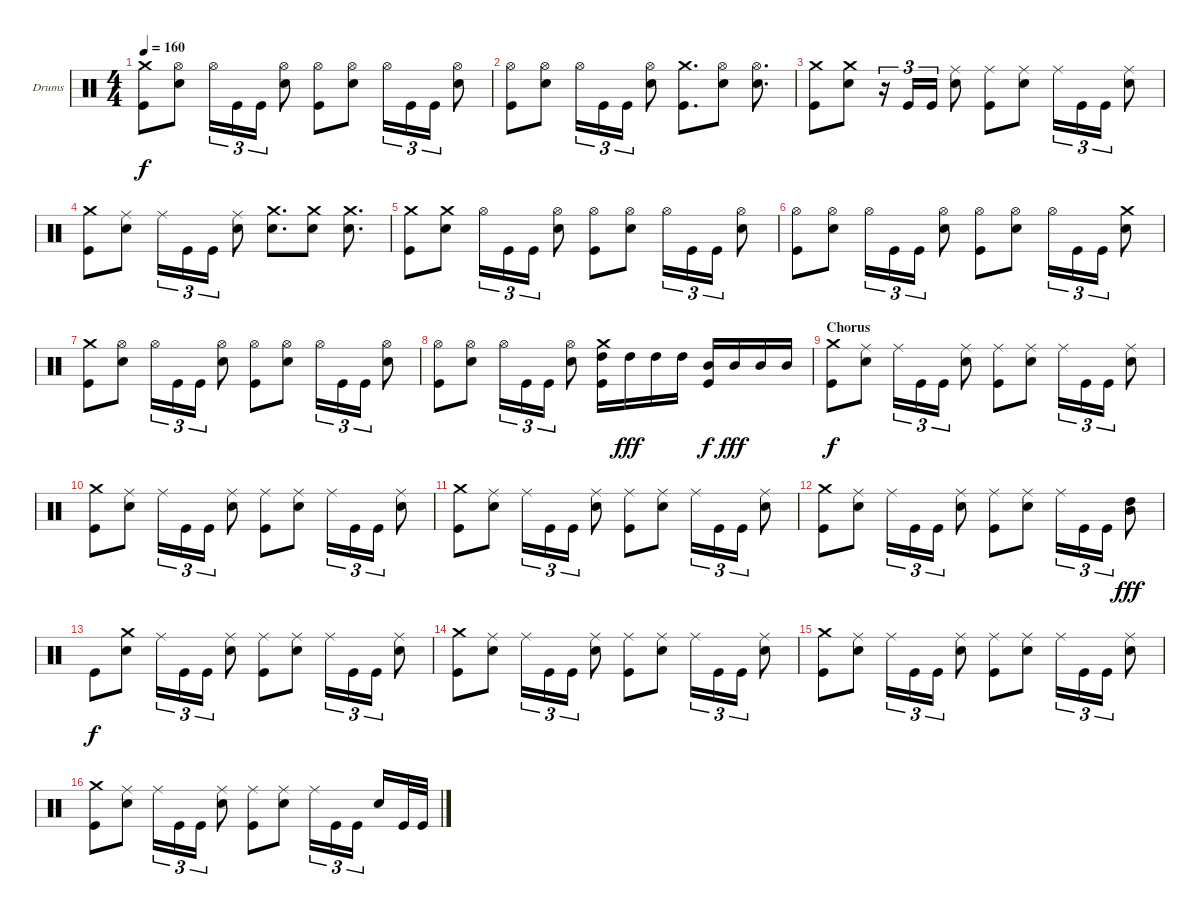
\bracketExtendMode groupsimilarinstruments
\firstSystemTrackNameOrientation horizontal
\otherSystemsTrackNameOrientation horizontal
\track ("Drums" "Drums") {instrument percussion}
\staff {score}
\articulation defaults
\ts (4 4)
\tempo 160
\clef neutral
\ks c
("Crash medium (hit)" "Kick (hit)").8{dy f} ("Hi-Hat (open)" "Snare (hit) 2").8 "Hi-Hat (open)".16{tu (3 2)} "Kick (hit)".16{tu (3 2)} "Kick (hit)".16{tu (3 2)} ("Hi-Hat (open)" "Snare (hit) 2").8 ("Hi-Hat (open)" "Kick (hit)").8 ("Hi-Hat (open)" "Snare (hit) 2").8 "Hi-Hat (open)".16{tu (3 2)} "Kick (hit)".16{tu (3 2)} "Kick (hit)".16{tu (3 2)} ("Hi-Hat (open)" "Snare (hit) 2").8 |
("Hi-Hat (open)" "Kick (hit)").8 ("Hi-Hat (open)" "Snare (hit) 2").8 "Hi-Hat (open)".16{tu (3 2)} "Kick (hit)".16{tu (3 2)} "Kick (hit)".16{tu (3 2)} ("Hi-Hat (open)" "Snare (hit) 2").8 ("Crash medium (hit)" "Kick (hit)").8{d} ("Hi-Hat (open)" "Snare (hit) 2").8 ("Hi-Hat (open)" "Snare (hit) 2").8{d} |
("Crash medium (hit)" "Kick (hit)").8 ("Crash medium (hit)" "Snare (hit) 2").8 r.16{tu (3 2)} "Kick (hit)".16{tu (3 2)} "Kick (hit)".16{tu (3 2)} ("Ride (middle)" "Snare (hit) 2").8 ("Ride (middle)" "Kick (hit)").8 ("Ride (middle)" "Snare (hit) 2").8 "Ride (middle)".16{tu (3 2)} "Kick (hit)".16{tu (3 2)} "Kick (hit)".16{tu (3 2)} ("Ride (middle)" "Snare (hit) 2").8 |
("Crash medium (hit)" "Kick (hit)").8 ("Ride (middle)" "Snare (hit) 2").8 "Ride (middle)".16{tu (3 2)} "Kick (hit)".16{tu (3 2)} "Kick (hit)".16{tu (3 2)} ("Ride (middle)" "Snare (hit) 2").8 ("Crash medium (hit)" "Snare (hit) 2").8{d} ("Crash medium (hit)" "Snare (hit) 2").8 ("Crash medium (hit)" "Snare (hit) 2").8{d} |
("Crash medium (hit)" "Kick (hit)").8 ("Crash medium (hit)" "Snare (hit) 2").8 "Hi-Hat (open)".16{tu (3 2)} "Kick (hit)".16{tu (3 2)} "Kick (hit)".16{tu (3 2)} ("Hi-Hat (open)" "Snare (hit) 2").8 ("Hi-Hat (open)" "Kick (hit)").8 ("Hi-Hat (open)" "Snare (hit) 2").8 "Hi-Hat (open)".16{tu (3 2)} "Kick (hit)".16{tu (3 2)} "Kick (hit)".16{tu (3 2)} ("Hi-Hat (open)" "Snare (hit) 2").8 |
("Hi-Hat (open)" "Kick (hit)").8 ("Hi-Hat (open)" "Snare (hit) 2").8 "Hi-Hat (open)".16{tu (3 2)} "Kick (hit)".16{tu (3 2)} "Kick (hit)".16{tu (3 2)} ("Hi-Hat (open)" "Snare (hit) 2").8 ("Hi-Hat (open)" "Kick (hit)").8 ("Hi-Hat (open)" "Snare (hit) 2").8 "Hi-Hat (open)".16{tu (3 2)} "Kick (hit)".16{tu (3 2)} "Kick (hit)".16{tu (3 2)} ("Crash medium (hit)" "Snare (hit) 2").8 |
("Crash medium (hit)" "Kick (hit)").8 ("Hi-Hat (open)" "Snare (hit) 2").8 "Hi-Hat (open)".16{tu (3 2)} "Kick (hit)".16{tu (3 2)} "Kick (hit)".16{tu (3 2)} ("Hi-Hat (open)" "Snare (hit) 2").8 ("Hi-Hat (open)" "Kick (hit)").8 ("Hi-Hat (open)" "Snare (hit) 2").8 "Hi-Hat (open)".16{tu (3 2)} "Kick (hit)".16{tu (3 2)} "Kick (hit)".16{tu (3 2)} ("Hi-Hat (open)" "Snare (hit) 2").8 |
("Hi-Hat (open)" "Kick (hit)").8 ("Hi-Hat (open)" "Snare (hit) 2").8 "Hi-Hat (open)".16{tu (3 2)} "Kick (hit)".16{tu (3 2)} "Kick (hit)".16{tu (3 2)} ("Hi-Hat (open)" "Snare (hit) 2").8 ("Crash medium (hit)" "Kick (hit)" "High Tom (hit)").16 "High Tom (hit)".16{dy fff} "High Tom (hit)".16 "High Tom (hit)".16 ("Kick (hit)" "Mid Tom (hit)").16{dy f} "Mid Tom (hit)".16{dy fff} "Mid Tom (hit)".16 "Mid Tom (hit)".16 |
\section ("" "Chorus")
("Crash medium (hit)" "Kick (hit)").8{dy f} ("Ride (middle)" "Snare (hit) 2").8 "Ride (middle)".16{tu (3 2)} "Kick (hit)".16{tu (3 2)} "Kick (hit)".16{tu (3 2)} ("Ride (middle)" "Snare (hit) 2").8 ("Ride (middle)" "Kick (hit)").8 ("Ride (middle)" "Snare (hit) 2").8 "Ride (middle)".16{tu (3 2)} "Kick (hit)".16{tu (3 2)} "Kick (hit)".16{tu (3 2)} ("Ride (middle)" "Snare (hit) 2").8 |
("Crash medium (hit)" "Kick (hit)").8 ("Ride (middle)" "Snare (hit) 2").8 "Ride (middle)".16{tu (3 2)} "Kick (hit)".16{tu (3 2)} "Kick (hit)".16{tu (3 2)} ("Ride (middle)" "Snare (hit) 2").8 ("Ride (middle)" "Kick (hit)").8 ("Ride (middle)" "Snare (hit) 2").8 "Ride (middle)".16{tu (3 2)} "Kick (hit)".16{tu (3 2)} "Kick (hit)".16{tu (3 2)} ("Ride (middle)" "Snare (hit) 2").8 |
("Crash medium (hit)" "Kick (hit)").8 ("Ride (middle)" "Snare (hit) 2").8 "Ride (middle)".16{tu (3 2)} "Kick (hit)".16{tu (3 2)} "Kick (hit)".16{tu (3 2)} ("Ride (middle)" "Snare (hit) 2").8 ("Ride (middle)" "Kick (hit)").8 ("Ride (middle)" "Snare (hit) 2").8 "Ride (middle)".16{tu (3 2)} "Kick (hit)".16{tu (3 2)} "Kick (hit)".16{tu (3 2)} ("Ride (middle)" "Snare (hit) 2").8 |
("Crash medium (hit)" "Kick (hit)").8 ("Ride (middle)" "Snare (hit) 2").8 "Ride (middle)".16{tu (3 2)} "Kick (hit)".16{tu (3 2)} "Kick (hit)".16{tu (3 2)} ("Ride (middle)" "Snare (hit) 2").8 ("Ride (middle)" "Kick (hit)").8 ("Ride (middle)" "Snare (hit) 2").8 "Ride (middle)".16{tu (3 2)} "Kick (hit)".16{tu (3 2)} "Kick (hit)".16{tu (3 2)} ("High Tom (hit)" "Mid Tom (hit)").8{dy fff} |
"Kick (hit)".8{dy f} ("Crash medium (hit)" "Snare (hit) 2").8 "Ride (middle)".16{tu (3 2)} "Kick (hit)".16{tu (3 2)} "Kick (hit)".16{tu (3 2)} ("Ride (middle)" "Snare (hit) 2").8 ("Ride (middle)" "Kick (hit)").8 ("Ride (middle)" "Snare (hit) 2").8 "Ride (middle)".16{tu (3 2)} "Kick (hit)".16{tu (3 2)} "Kick (hit)".16{tu (3 2)} ("Ride (middle)" "Snare (hit) 2").8 |
("Crash medium (hit)" "Kick (hit)").8 ("Ride (middle)" "Snare (hit) 2").8 "Ride (middle)".16{tu (3 2)} "Kick (hit)".16{tu (3 2)} "Kick (hit)".16{tu (3 2)} ("Ride (middle)" "Snare (hit) 2").8 ("Ride (middle)" "Kick (hit)").8 ("Ride (middle)" "Snare (hit) 2").8 "Ride (middle)".16{tu (3 2)} "Kick (hit)".16{tu (3 2)} "Kick (hit)".16{tu (3 2)} ("Ride (middle)" "Snare (hit) 2").8 |
("Crash medium (hit)" "Kick (hit)").8 ("Ride (middle)" "Snare (hit) 2").8 "Ride (middle)".16{tu (3 2)} "Kick (hit)".16{tu (3 2)} "Kick (hit)".16{tu (3 2)} ("Ride (middle)" "Snare (hit) 2").8 ("Ride (middle)" "Kick (hit)").8 ("Ride (middle)" "Snare (hit) 2").8 "Ride (middle)".16{tu (3 2)} "Kick (hit)".16{tu (3 2)} "Kick (hit)".16{tu (3 2)} ("Ride (middle)" "Snare (hit) 2").8 |
("Crash medium (hit)" "Kick (hit)").8 ("Ride (middle)" "Snare (hit) 2").8 "Ride (middle)".16{tu (3 2)} "Kick (hit)".16{tu (3 2)} "Kick (hit)".16{tu (3 2)} ("Ride (middle)" "Snare (hit) 2").8 ("Ride (middle)" "Kick (hit)").8 ("Ride (middle)" "Snare (hit) 2").8 "Ride (middle)".16{tu (3 2)} "Kick (hit)".16{tu (3 2)} "Kick (hit)".16{tu (3 2)} "Snare (hit) 2".16 "Kick (hit)".32 "Kick (hit)".32
